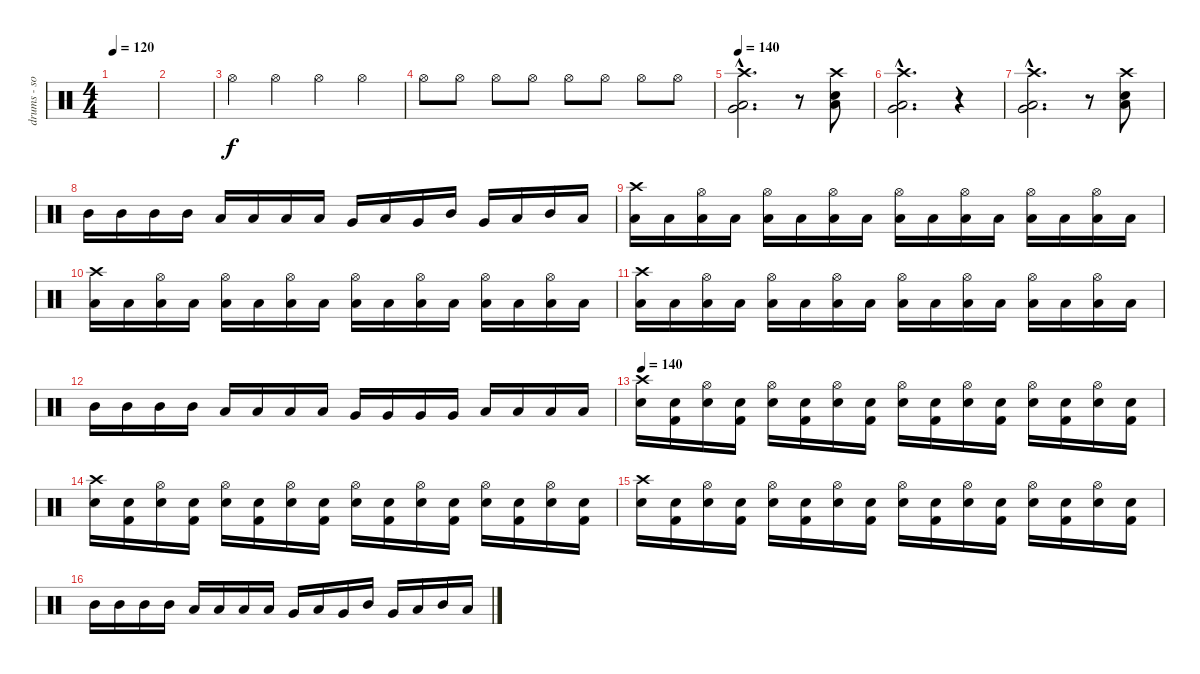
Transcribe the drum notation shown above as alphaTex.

\track ("drums - someone maybe miki" "drums - so") {instrument percussion}
\staff {score}
\articulation defaults
\ts (4 4)
\tempo 120
\clef neutral
\ks c
|
|
"Hi-Hat (open)".4 "Hi-Hat (open)".4 "Hi-Hat (open)".4 "Hi-Hat (open)".4 |
"Hi-Hat (open)".8{volume 14} "Hi-Hat (open)".8 "Hi-Hat (open)".8 "Hi-Hat (open)".8 "Hi-Hat (open)".8 "Hi-Hat (open)".8 "Hi-Hat (open)".8 "Hi-Hat (open)".8 |
\tempo 140
("Crash high (hit)"{hac} "Low Floor Tom (hit)"{hac} "Very Low Tom (hit)"{hac}).2{d} r.8 ("Crash high (hit)" "Low Floor Tom (hit)" "Snare (hit)").8 |
("Crash high (hit)"{hac} "Low Floor Tom (hit)"{hac} "Very Low Tom (hit)"{hac}).2{d} r.4 |
("Crash high (hit)"{hac} "Low Floor Tom (hit)"{hac} "Very Low Tom (hit)"{hac}).2{d} r.8 ("Crash high (hit)" "Low Floor Tom (hit)" "Snare (hit)").8 |
"Mid Tom (hit)".16 "Mid Tom (hit)".16 "Mid Tom (hit)".16 "Mid Tom (hit)".16 "Low Tom (hit)".16 "Low Tom (hit)".16 "Low Tom (hit)".16 "Low Tom (hit)".16 "Very Low Tom (hit)".16 "Low Tom (hit)".16 "Very Low Tom (hit)".16 "Mid Tom (hit)".16 "Very Low Tom (hit)".16 "Low Tom (hit)".16 "Mid Tom (hit)".16 "Low Tom (hit)".16 |
("Crash high (hit)" "Low Floor Tom (hit)").16 "Low Floor Tom (hit)".16 ("Hi-Hat (open)" "Low Floor Tom (hit)").16 "Low Floor Tom (hit)".16 ("Hi-Hat (open)" "Low Tom (hit)").16 "Low Floor Tom (hit)".16 ("Hi-Hat (open)" "Low Floor Tom (hit)").16 "Low Floor Tom (hit)".16 ("Hi-Hat (open)" "Low Floor Tom (hit)").16 "Low Floor Tom (hit)".16 ("Hi-Hat (open)" "Low Floor Tom (hit)").16 "Low Floor Tom (hit)".16 ("Hi-Hat (open)" "Low Tom (hit)").16 "Low Floor Tom (hit)".16 ("Hi-Hat (open)" "Low Floor Tom (hit)").16 "Low Floor Tom (hit)".16 |
("Crash high (hit)" "Low Floor Tom (hit)").16 "Low Floor Tom (hit)".16 ("Hi-Hat (open)" "Low Floor Tom (hit)").16 "Low Floor Tom (hit)".16 ("Hi-Hat (open)" "Low Tom (hit)").16 "Low Floor Tom (hit)".16 ("Hi-Hat (open)" "Low Floor Tom (hit)").16 "Low Floor Tom (hit)".16 ("Hi-Hat (open)" "Low Floor Tom (hit)").16 "Low Floor Tom (hit)".16 ("Hi-Hat (open)" "Low Floor Tom (hit)").16 "Low Floor Tom (hit)".16 ("Hi-Hat (open)" "Low Tom (hit)").16 "Low Floor Tom (hit)".16 ("Hi-Hat (open)" "Low Floor Tom (hit)").16 "Low Floor Tom (hit)".16 |
("Crash high (hit)" "Low Floor Tom (hit)").16 "Low Floor Tom (hit)".16 ("Hi-Hat (open)" "Low Floor Tom (hit)").16 "Low Floor Tom (hit)".16 ("Hi-Hat (open)" "Low Tom (hit)").16 "Low Floor Tom (hit)".16 ("Hi-Hat (open)" "Low Floor Tom (hit)").16 "Low Floor Tom (hit)".16 ("Hi-Hat (open)" "Low Floor Tom (hit)").16 "Low Floor Tom (hit)".16 ("Hi-Hat (open)" "Low Floor Tom (hit)").16 "Low Floor Tom (hit)".16 ("Hi-Hat (open)" "Low Tom (hit)").16 "Low Floor Tom (hit)".16 ("Hi-Hat (open)" "Low Floor Tom (hit)").16 "Low Floor Tom (hit)".16 |
"Mid Tom (hit)".16 "Mid Tom (hit)".16 "Mid Tom (hit)".16 "Mid Tom (hit)".16 "Low Tom (hit)".16 "Low Tom (hit)".16 "Low Tom (hit)".16 "Low Tom (hit)".16 "Very Low Tom (hit)".16 "Very Low Tom (hit)".16 "Very Low Tom (hit)".16 "Very Low Tom (hit)".16 "Low Floor Tom (hit)".16 "Low Floor Tom (hit)".16 "Low Floor Tom (hit)".16 "Low Floor Tom (hit)".16 |
\tempo 140
("Electric Snare (hit)" "Crash high (hit)").16 ("Kick (hit) 2" "Electric Snare (hit)").16 ("Electric Snare (hit)" "Hi-Hat (open)").16 ("Kick (hit) 2" "Electric Snare (hit)").16 ("Electric Snare (hit)" "Hi-Hat (open)").16 ("Kick (hit) 2" "Electric Snare (hit)").16 ("Electric Snare (hit)" "Hi-Hat (open)").16 ("Kick (hit) 2" "Electric Snare (hit)").16 ("Electric Snare (hit)" "Hi-Hat (open)").16 ("Kick (hit) 2" "Electric Snare (hit)").16 ("Electric Snare (hit)" "Hi-Hat (open)").16 ("Kick (hit) 2" "Electric Snare (hit)").16 ("Electric Snare (hit)" "Hi-Hat (open)").16 ("Kick (hit) 2" "Electric Snare (hit)").16 ("Electric Snare (hit)" "Hi-Hat (open)").16 ("Kick (hit) 2" "Electric Snare (hit)").16 |
("Electric Snare (hit)" "Crash high (hit)").16 ("Kick (hit) 2" "Electric Snare (hit)").16 ("Electric Snare (hit)" "Hi-Hat (open)").16 ("Kick (hit) 2" "Electric Snare (hit)").16 ("Electric Snare (hit)" "Hi-Hat (open)").16 ("Kick (hit) 2" "Electric Snare (hit)").16 ("Electric Snare (hit)" "Hi-Hat (open)").16 ("Kick (hit) 2" "Electric Snare (hit)").16 ("Electric Snare (hit)" "Hi-Hat (open)").16 ("Kick (hit) 2" "Electric Snare (hit)").16 ("Electric Snare (hit)" "Hi-Hat (open)").16 ("Kick (hit) 2" "Electric Snare (hit)").16 ("Electric Snare (hit)" "Hi-Hat (open)").16 ("Kick (hit) 2" "Electric Snare (hit)").16 ("Electric Snare (hit)" "Hi-Hat (open)").16 ("Kick (hit) 2" "Electric Snare (hit)").16 |
("Electric Snare (hit)" "Crash high (hit)").16 ("Kick (hit) 2" "Electric Snare (hit)").16 ("Electric Snare (hit)" "Hi-Hat (open)").16 ("Kick (hit) 2" "Electric Snare (hit)").16 ("Electric Snare (hit)" "Hi-Hat (open)").16 ("Kick (hit) 2" "Electric Snare (hit)").16 ("Electric Snare (hit)" "Hi-Hat (open)").16 ("Kick (hit) 2" "Electric Snare (hit)").16 ("Electric Snare (hit)" "Hi-Hat (open)").16 ("Kick (hit) 2" "Electric Snare (hit)").16 ("Electric Snare (hit)" "Hi-Hat (open)").16 ("Kick (hit) 2" "Electric Snare (hit)").16 ("Electric Snare (hit)" "Hi-Hat (open)").16 ("Kick (hit) 2" "Electric Snare (hit)").16 ("Electric Snare (hit)" "Hi-Hat (open)").16 ("Kick (hit) 2" "Electric Snare (hit)").16 |
"Mid Tom (hit)".16 "Mid Tom (hit)".16 "Mid Tom (hit)".16 "Mid Tom (hit)".16 "Low Tom (hit)".16 "Low Tom (hit)".16 "Low Tom (hit)".16 "Low Tom (hit)".16 "Very Low Tom (hit)".16 "Low Tom (hit)".16 "Very Low Tom (hit)".16 "Mid Tom (hit)".16 "Very Low Tom (hit)".16 "Low Tom (hit)".16 "Mid Tom (hit)".16 "Low Tom (hit)".16
